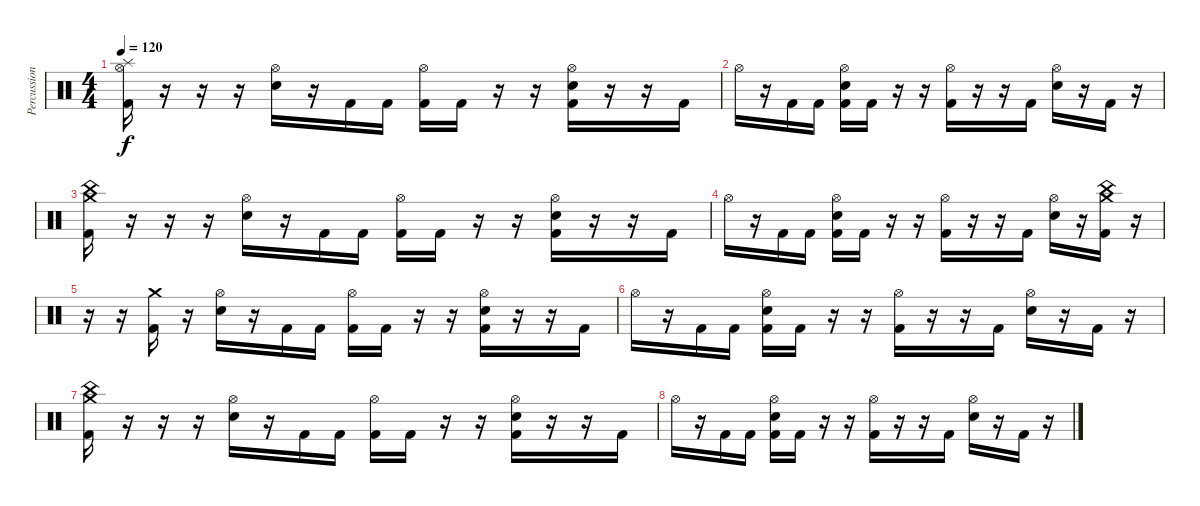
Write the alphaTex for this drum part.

\track ("Percussion" "Percussion") {instrument percussion}
\staff {score}
\articulation defaults
\ts (4 4)
\tempo 120
\clef neutral
\ks c
("Splash (hit)" "Hi-Hat (open)" "Kick (hit) 2").16{dy f} r.16 r.16 r.16 ("Hi-Hat (open)" "Electric Snare (hit)").16 r.16 "Kick (hit) 2".16 "Kick (hit) 2".16 ("Hi-Hat (open)" "Kick (hit) 2").16 "Kick (hit) 2".16 r.16 r.16 ("Hi-Hat (open)" "Electric Snare (hit)" "Kick (hit) 2").16 r.16 r.16 "Kick (hit) 2".16 |
"Hi-Hat (open)".16 r.16 "Kick (hit) 2".16 "Kick (hit) 2".16 ("Hi-Hat (open)" "Electric Snare (hit)" "Kick (hit) 2").16 "Kick (hit) 2".16 r.16 r.16 ("Hi-Hat (open)" "Kick (hit) 2").16 r.16 r.16 "Kick (hit) 2".16 ("Hi-Hat (open)" "Electric Snare (hit)").16 r.16 "Kick (hit) 2".16 r.16 |
("Crash medium (hit)" "China (hit)" "Kick (hit) 2").16 r.16 r.16 r.16 ("Hi-Hat (open)" "Electric Snare (hit)").16 r.16 "Kick (hit) 2".16 "Kick (hit) 2".16 ("Hi-Hat (open)" "Kick (hit) 2").16 "Kick (hit) 2".16 r.16 r.16 ("Hi-Hat (open)" "Electric Snare (hit)" "Kick (hit) 2").16 r.16 r.16 "Kick (hit) 2".16 |
"Hi-Hat (open)".16 r.16 "Kick (hit) 2".16 "Kick (hit) 2".16 ("Hi-Hat (open)" "Electric Snare (hit)" "Kick (hit) 2").16 "Kick (hit) 2".16 r.16 r.16 ("Hi-Hat (open)" "Kick (hit) 2").16 r.16 r.16 "Kick (hit) 2".16 ("Hi-Hat (open)" "Electric Snare (hit)").16 r.16 ("China (hit)" "Crash medium (hit)" "Kick (hit) 2").16 r.16 |
r.16 r.16 ("Crash medium (hit)" "Kick (hit) 2").16 r.16 ("Hi-Hat (open)" "Electric Snare (hit)").16 r.16 "Kick (hit) 2".16 "Kick (hit) 2".16 ("Hi-Hat (open)" "Kick (hit) 2").16 "Kick (hit) 2".16 r.16 r.16 ("Hi-Hat (open)" "Electric Snare (hit)" "Kick (hit) 2").16 r.16 r.16 "Kick (hit) 2".16 |
"Hi-Hat (open)".16 r.16 "Kick (hit) 2".16 "Kick (hit) 2".16 ("Hi-Hat (open)" "Electric Snare (hit)" "Kick (hit) 2").16 "Kick (hit) 2".16 r.16 r.16 ("Hi-Hat (open)" "Kick (hit) 2").16 r.16 r.16 "Kick (hit) 2".16 ("Hi-Hat (open)" "Electric Snare (hit)").16 r.16 "Kick (hit) 2".16 r.16 |
("Crash medium (hit)" "China (hit)" "Kick (hit) 2").16 r.16 r.16 r.16 ("Hi-Hat (open)" "Electric Snare (hit)").16 r.16 "Kick (hit) 2".16 "Kick (hit) 2".16 ("Hi-Hat (open)" "Kick (hit) 2").16 "Kick (hit) 2".16 r.16 r.16 ("Hi-Hat (open)" "Electric Snare (hit)" "Kick (hit) 2").16 r.16 r.16 "Kick (hit) 2".16 |
"Hi-Hat (open)".16 r.16 "Kick (hit) 2".16 "Kick (hit) 2".16 ("Hi-Hat (open)" "Electric Snare (hit)" "Kick (hit) 2").16 "Kick (hit) 2".16 r.16 r.16 ("Hi-Hat (open)" "Kick (hit) 2").16 r.16 r.16 "Kick (hit) 2".16 ("Hi-Hat (open)" "Electric Snare (hit)").16 r.16 "Kick (hit) 2".16 r.16
